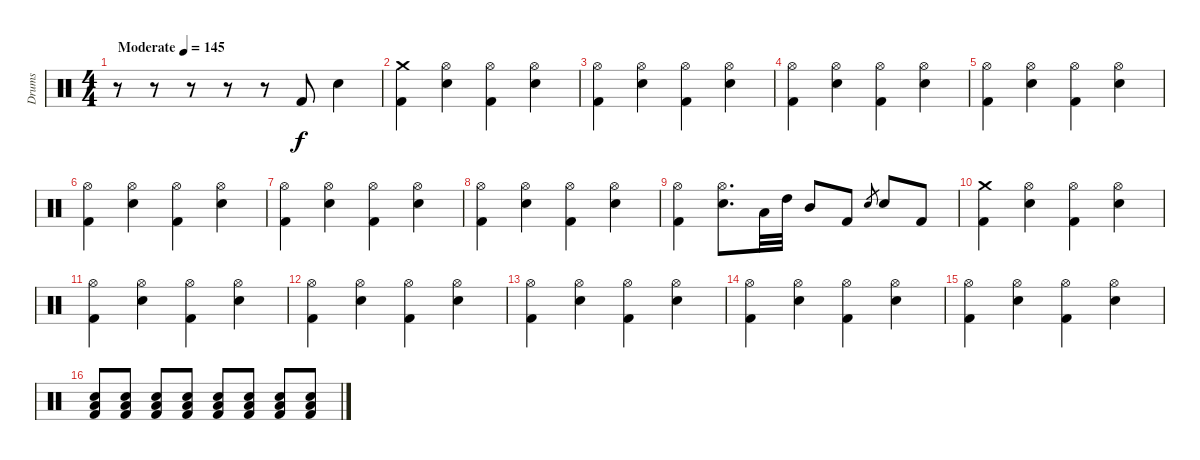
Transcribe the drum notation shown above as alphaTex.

\track ("Drums" "Drums") {instrument percussion}
\staff {score}
\articulation defaults
\ts (4 4)
\tempo (145 "Moderate")
\clef neutral
\ks c
r.8{dy f} r.8 r.8 r.8 r.8 "Kick (hit) 2".8 "Snare (hit) 2".4 |
("Crash medium (hit)" "Kick (hit) 2").4 ("Hi-Hat (open)" "Snare (hit) 2").4 ("Hi-Hat (open)" "Kick (hit) 2").4 ("Hi-Hat (open)" "Snare (hit) 2").4 |
("Hi-Hat (open)" "Kick (hit) 2").4 ("Hi-Hat (open)" "Snare (hit) 2").4 ("Hi-Hat (open)" "Kick (hit) 2").4 ("Hi-Hat (open)" "Snare (hit) 2").4 |
("Hi-Hat (open)" "Kick (hit) 2").4 ("Hi-Hat (open)" "Snare (hit) 2").4 ("Hi-Hat (open)" "Kick (hit) 2").4 ("Hi-Hat (open)" "Snare (hit) 2").4 |
("Hi-Hat (open)" "Kick (hit) 2").4 ("Hi-Hat (open)" "Snare (hit) 2").4 ("Hi-Hat (open)" "Kick (hit) 2").4 ("Hi-Hat (open)" "Snare (hit) 2").4 |
("Hi-Hat (open)" "Kick (hit) 2").4 ("Hi-Hat (open)" "Snare (hit) 2").4 ("Hi-Hat (open)" "Kick (hit) 2").4 ("Hi-Hat (open)" "Snare (hit) 2").4 |
("Hi-Hat (open)" "Kick (hit) 2").4 ("Hi-Hat (open)" "Snare (hit) 2").4 ("Hi-Hat (open)" "Kick (hit) 2").4 ("Hi-Hat (open)" "Snare (hit) 2").4 |
("Hi-Hat (open)" "Kick (hit) 2").4 ("Hi-Hat (open)" "Snare (hit) 2").4 ("Hi-Hat (open)" "Kick (hit) 2").4 ("Hi-Hat (open)" "Snare (hit) 2").4 |
("Hi-Hat (open)" "Kick (hit) 2").4 ("Hi-Hat (open)" "Snare (hit) 2").8{d} "Low Tom (hit)".32 "High Tom (hit)".32 "Mid Tom (hit)".8 "Kick (hit) 2".8 "Electric Snare (hit)".8{gr} "Snare (hit) 2".8 "Kick (hit) 2".8 |
("Crash medium (hit)" "Kick (hit) 2").4 ("Hi-Hat (open)" "Snare (hit) 2").4 ("Hi-Hat (open)" "Kick (hit) 2").4 ("Hi-Hat (open)" "Snare (hit) 2").4 |
("Hi-Hat (open)" "Kick (hit) 2").4 ("Hi-Hat (open)" "Snare (hit) 2").4 ("Hi-Hat (open)" "Kick (hit) 2").4 ("Hi-Hat (open)" "Snare (hit) 2").4 |
("Hi-Hat (open)" "Kick (hit) 2").4 ("Hi-Hat (open)" "Snare (hit) 2").4 ("Hi-Hat (open)" "Kick (hit) 2").4 ("Hi-Hat (open)" "Snare (hit) 2").4 |
("Hi-Hat (open)" "Kick (hit) 2").4 ("Hi-Hat (open)" "Snare (hit) 2").4 ("Hi-Hat (open)" "Kick (hit) 2").4 ("Hi-Hat (open)" "Snare (hit) 2").4 |
("Hi-Hat (open)" "Kick (hit) 2").4 ("Hi-Hat (open)" "Snare (hit) 2").4 ("Hi-Hat (open)" "Kick (hit) 2").4 ("Hi-Hat (open)" "Snare (hit) 2").4 |
("Hi-Hat (open)" "Kick (hit) 2").4 ("Hi-Hat (open)" "Snare (hit) 2").4 ("Hi-Hat (open)" "Kick (hit) 2").4 ("Hi-Hat (open)" "Snare (hit) 2").4 |
("Snare (hit) 2" "Low Floor Tom (hit)" "Kick (hit) 2").8 ("Snare (hit) 2" "Low Floor Tom (hit)" "Kick (hit) 2").8 ("Snare (hit) 2" "Low Floor Tom (hit)" "Kick (hit) 2").8 ("Snare (hit) 2" "Low Floor Tom (hit)" "Kick (hit) 2").8 ("Snare (hit) 2" "Low Floor Tom (hit)" "Kick (hit) 2").8 ("Snare (hit) 2" "Low Floor Tom (hit)" "Kick (hit) 2").8 ("Snare (hit) 2" "Low Floor Tom (hit)" "Kick (hit) 2").8 ("Snare (hit) 2" "Low Floor Tom (hit)" "Kick (hit) 2").8
